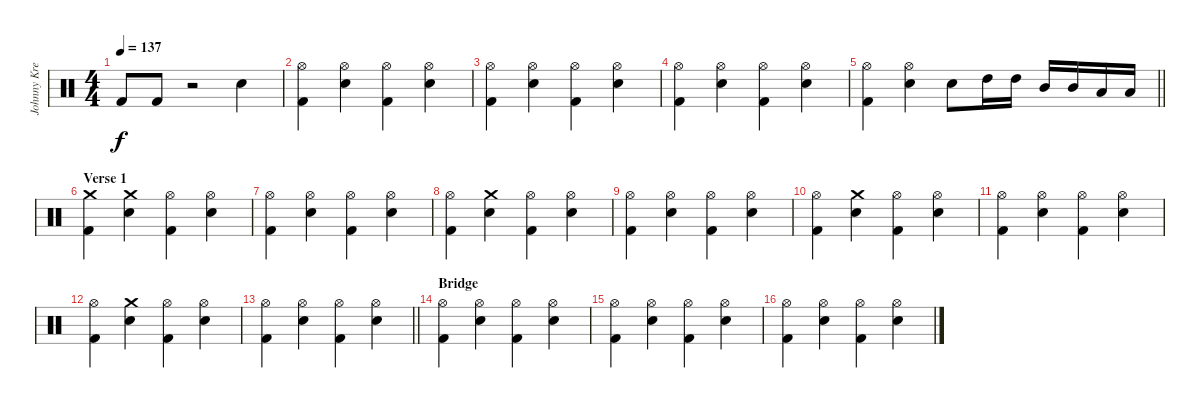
\track ("Johnny Kreis" "Johnny Kre") {instrument percussion}
\staff {score}
\articulation defaults
\ts (4 4)
\tempo 137
\clef neutral
\ks c "Kick (hit) 2".8{dy f} "Kick (hit) 2".8
r.2 "Snare (hit) 2".4 |
("Hi-Hat (open)" "Kick (hit) 2").4 ("Hi-Hat (open)" "Snare (hit) 2").4 ("Hi-Hat (open)" "Kick (hit) 2").4 ("Hi-Hat (open)" "Snare (hit) 2").4 |
("Hi-Hat (open)" "Kick (hit) 2").4 ("Hi-Hat (open)" "Snare (hit) 2").4 ("Hi-Hat (open)" "Kick (hit) 2").4 ("Hi-Hat (open)" "Snare (hit) 2").4 |
("Hi-Hat (open)" "Kick (hit) 2").4 ("Hi-Hat (open)" "Snare (hit) 2").4 ("Hi-Hat (open)" "Kick (hit) 2").4 ("Hi-Hat (open)" "Snare (hit) 2").4 |
\barLineRight lightlight
("Hi-Hat (open)" "Kick (hit) 2").4 ("Hi-Hat (open)" "Snare (hit) 2").4 "Snare (hit) 2".8 "High Tom (hit)".16 "High Tom (hit)".16 "Mid Tom (hit)".16 "Mid Tom (hit)".16 "Low Tom (hit)".16 "Low Tom (hit)".16 |
\section ("" "Verse 1")
("Crash medium (hit)" "Kick (hit) 2").4 ("Crash medium (hit)" "Snare (hit) 2").4 ("Hi-Hat (open)" "Kick (hit) 2").4 ("Hi-Hat (open)" "Snare (hit) 2").4 |
("Hi-Hat (open)" "Kick (hit) 2").4 ("Hi-Hat (open)" "Snare (hit) 2").4 ("Hi-Hat (open)" "Kick (hit) 2").4 ("Hi-Hat (open)" "Snare (hit) 2").4 |
("Hi-Hat (open)" "Kick (hit) 2").4 ("Crash medium (hit)" "Snare (hit) 2").4 ("Hi-Hat (open)" "Kick (hit) 2").4 ("Hi-Hat (open)" "Snare (hit) 2").4 |
("Hi-Hat (open)" "Kick (hit) 2").4 ("Hi-Hat (open)" "Snare (hit) 2").4 ("Hi-Hat (open)" "Kick (hit) 2").4 ("Hi-Hat (open)" "Snare (hit) 2").4 |
("Hi-Hat (open)" "Kick (hit) 2").4 ("Crash medium (hit)" "Snare (hit) 2").4 ("Hi-Hat (open)" "Kick (hit) 2").4 ("Hi-Hat (open)" "Snare (hit) 2").4 |
("Hi-Hat (open)" "Kick (hit) 2").4 ("Hi-Hat (open)" "Snare (hit) 2").4 ("Hi-Hat (open)" "Kick (hit) 2").4 ("Hi-Hat (open)" "Snare (hit) 2").4 |
("Hi-Hat (open)" "Kick (hit) 2").4 ("Crash medium (hit)" "Snare (hit) 2").4 ("Hi-Hat (open)" "Kick (hit) 2").4 ("Hi-Hat (open)" "Snare (hit) 2").4 |
\barLineRight lightlight
("Hi-Hat (open)" "Kick (hit) 2").4 ("Hi-Hat (open)" "Snare (hit) 2").4 ("Hi-Hat (open)" "Kick (hit) 2").4 ("Hi-Hat (open)" "Snare (hit) 2").4 |
\section ("" "Bridge")
("Hi-Hat (open)" "Kick (hit) 2").4 ("Hi-Hat (open)" "Snare (hit) 2").4 ("Hi-Hat (open)" "Kick (hit) 2").4 ("Hi-Hat (open)" "Snare (hit) 2").4 |
("Hi-Hat (open)" "Kick (hit) 2").4 ("Hi-Hat (open)" "Snare (hit) 2").4 ("Hi-Hat (open)" "Kick (hit) 2").4 ("Hi-Hat (open)" "Snare (hit) 2").4 |
("Hi-Hat (open)" "Kick (hit) 2").4 ("Hi-Hat (open)" "Snare (hit) 2").4 ("Hi-Hat (open)" "Kick (hit) 2").4 ("Hi-Hat (open)" "Snare (hit) 2").4
